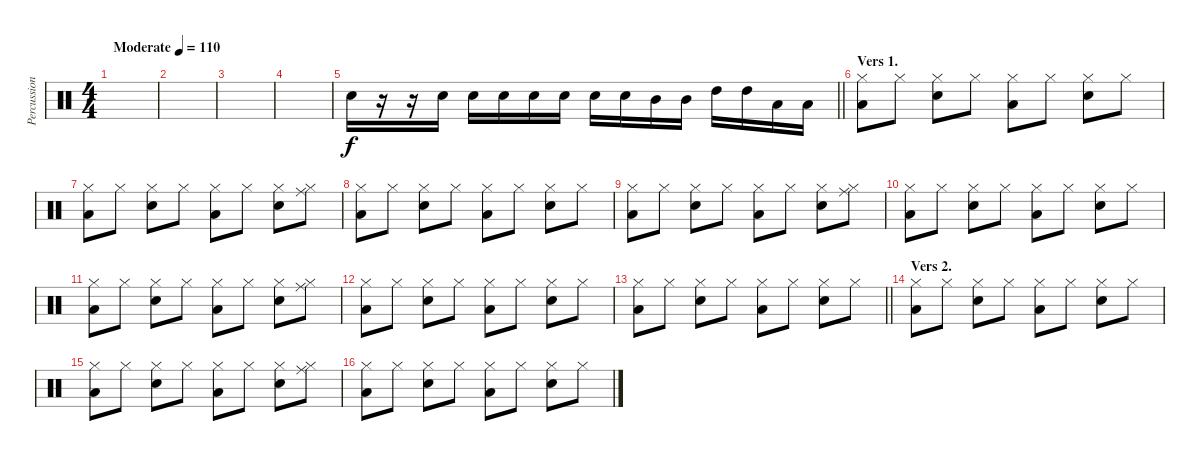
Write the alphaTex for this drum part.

\track ("Percussion" "Percussion") {instrument percussion}
\staff {score}
\articulation defaults
\ts (4 4)
\tempo (110 "Moderate")
\clef neutral
\ks c
|
|
|
|
\barLineRight lightlight "Snare (hit) 2".16
r.16 r.16 "Snare (hit) 2".16 "Snare (hit) 2".16 "Snare (hit) 2".16 "Snare (hit) 2".16 "Snare (hit) 2".16 "Snare (hit) 2".16 "Snare (hit) 2".16 "Mid Tom (hit)".16 "Mid Tom (hit)".16 "High Tom (hit)".16 "High Tom (hit)".16 "Low Tom (hit)".16 "Low Tom (hit)".16 |
\section ("" "Vers 1.")
("Hi-Hat (closed)" "Low Floor Tom (hit)").8 "Hi-Hat (closed)".8 ("Hi-Hat (closed)" "Snare (hit) 2").8 "Hi-Hat (closed)".8 ("Hi-Hat (closed)" "Low Floor Tom (hit)").8 "Hi-Hat (closed)".8 ("Hi-Hat (closed)" "Snare (hit) 2").8 "Hi-Hat (closed)".8 |
("Hi-Hat (closed)" "Low Floor Tom (hit)").8 "Hi-Hat (closed)".8 ("Hi-Hat (closed)" "Snare (hit) 2").8 "Hi-Hat (closed)".8 ("Hi-Hat (closed)" "Low Floor Tom (hit)").8 "Hi-Hat (closed)".8 ("Hi-Hat (closed)" "Snare (hit) 2").8 ("Hi-Hat (closed)" "Ride (middle)").8 |
("Hi-Hat (closed)" "Low Floor Tom (hit)").8 "Hi-Hat (closed)".8 ("Hi-Hat (closed)" "Snare (hit) 2").8 "Hi-Hat (closed)".8 ("Hi-Hat (closed)" "Low Floor Tom (hit)").8 "Hi-Hat (closed)".8 ("Hi-Hat (closed)" "Snare (hit) 2").8 "Hi-Hat (closed)".8 |
("Hi-Hat (closed)" "Low Floor Tom (hit)").8 "Hi-Hat (closed)".8 ("Hi-Hat (closed)" "Snare (hit) 2").8 "Hi-Hat (closed)".8 ("Hi-Hat (closed)" "Low Floor Tom (hit)").8 "Hi-Hat (closed)".8 ("Hi-Hat (closed)" "Snare (hit) 2").8 ("Hi-Hat (closed)" "Ride (middle)").8 |
("Hi-Hat (closed)" "Low Floor Tom (hit)").8 "Hi-Hat (closed)".8 ("Hi-Hat (closed)" "Snare (hit) 2").8 "Hi-Hat (closed)".8 ("Hi-Hat (closed)" "Low Floor Tom (hit)").8 "Hi-Hat (closed)".8 ("Hi-Hat (closed)" "Snare (hit) 2").8 "Hi-Hat (closed)".8 |
("Hi-Hat (closed)" "Low Floor Tom (hit)").8 "Hi-Hat (closed)".8 ("Hi-Hat (closed)" "Snare (hit) 2").8 "Hi-Hat (closed)".8 ("Hi-Hat (closed)" "Low Floor Tom (hit)").8 "Hi-Hat (closed)".8 ("Hi-Hat (closed)" "Snare (hit) 2").8 ("Hi-Hat (closed)" "Ride (middle)").8 |
("Hi-Hat (closed)" "Low Floor Tom (hit)").8 "Hi-Hat (closed)".8 ("Hi-Hat (closed)" "Snare (hit) 2").8 "Hi-Hat (closed)".8 ("Hi-Hat (closed)" "Low Floor Tom (hit)").8 "Hi-Hat (closed)".8 ("Hi-Hat (closed)" "Snare (hit) 2").8 "Hi-Hat (closed)".8 |
\barLineRight lightlight
("Hi-Hat (closed)" "Low Floor Tom (hit)").8 "Hi-Hat (closed)".8 ("Hi-Hat (closed)" "Snare (hit) 2").8 "Hi-Hat (closed)".8 ("Hi-Hat (closed)" "Low Floor Tom (hit)").8 "Hi-Hat (closed)".8 ("Hi-Hat (closed)" "Snare (hit) 2").8 "Hi-Hat (closed)".8 |
\section ("" "Vers 2.")
("Hi-Hat (closed)" "Low Floor Tom (hit)").8 "Hi-Hat (closed)".8 ("Hi-Hat (closed)" "Snare (hit) 2").8 "Hi-Hat (closed)".8 ("Hi-Hat (closed)" "Low Floor Tom (hit)").8 "Hi-Hat (closed)".8 ("Hi-Hat (closed)" "Snare (hit) 2").8 "Hi-Hat (closed)".8 |
("Hi-Hat (closed)" "Low Floor Tom (hit)").8 "Hi-Hat (closed)".8 ("Hi-Hat (closed)" "Snare (hit) 2").8 "Hi-Hat (closed)".8 ("Hi-Hat (closed)" "Low Floor Tom (hit)").8 "Hi-Hat (closed)".8 ("Hi-Hat (closed)" "Snare (hit) 2").8 ("Hi-Hat (closed)" "Ride (middle)").8 |
("Hi-Hat (closed)" "Low Floor Tom (hit)").8 "Hi-Hat (closed)".8 ("Hi-Hat (closed)" "Snare (hit) 2").8 "Hi-Hat (closed)".8 ("Hi-Hat (closed)" "Low Floor Tom (hit)").8 "Hi-Hat (closed)".8 ("Hi-Hat (closed)" "Snare (hit) 2").8 "Hi-Hat (closed)".8
